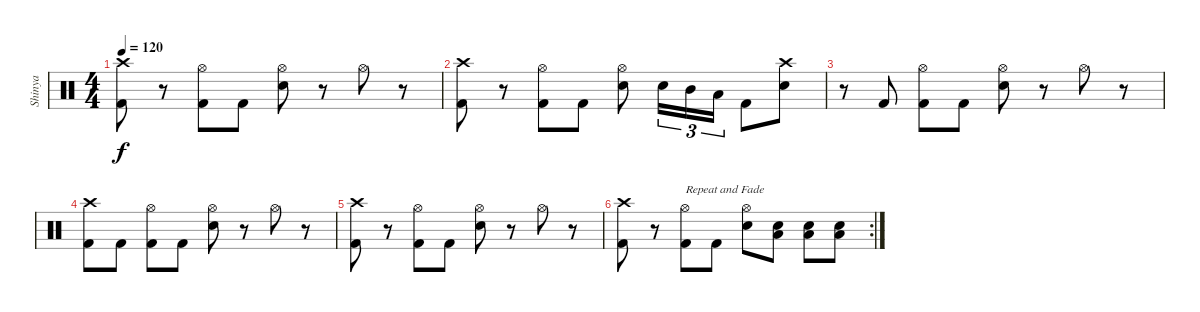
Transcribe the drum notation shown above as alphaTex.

\track ("Shinya" "Shinya") {instrument percussion}
\staff {score}
\articulation defaults
\ts (4 4)
\tempo 120
\clef neutral
\ks c
("Crash high (hit)" "Kick (hit) 2").8{dy f} r.8 ("Hi-Hat (open)" "Kick (hit) 2").8 "Kick (hit) 2".8 ("Hi-Hat (open)" "Electric Snare (hit)").8 r.8 "Hi-Hat (open)".8 r.8 |
("Crash high (hit)" "Kick (hit) 2").8 r.8 ("Hi-Hat (open)" "Kick (hit) 2").8 "Kick (hit) 2".8 ("Hi-Hat (open)" "Electric Snare (hit)").8 "Electric Snare (hit)".16{tu (3 2)} "Mid Tom (hit)".16{tu (3 2)} "Low Floor Tom (hit)".16{tu (3 2)} "Kick (hit) 2".8 ("Crash high (hit)" "Electric Snare (hit)").8 |
r.8 "Kick (hit) 2".8 ("Hi-Hat (open)" "Kick (hit) 2").8 "Kick (hit) 2".8 ("Hi-Hat (open)" "Electric Snare (hit)").8 r.8 "Hi-Hat (open)".8 r.8 |
("Crash high (hit)" "Kick (hit) 2").8 "Kick (hit) 2".8 ("Hi-Hat (open)" "Kick (hit) 2").8 "Kick (hit) 2".8 ("Hi-Hat (open)" "Electric Snare (hit)").8 r.8 "Hi-Hat (open)".8 r.8 |
("Crash high (hit)" "Kick (hit) 2").8 r.8 ("Hi-Hat (open)" "Kick (hit) 2").8 "Kick (hit) 2".8 ("Hi-Hat (open)" "Electric Snare (hit)").8 r.8 "Hi-Hat (open)".8 r.8 |
\rc 2
("Crash high (hit)" "Kick (hit) 2").8 r.8 ("Hi-Hat (open)" "Kick (hit) 2").8{txt "Repeat and Fade"} "Kick (hit) 2".8 ("Hi-Hat (open)" "Electric Snare (hit)").8 ("Electric Snare (hit)" "Low Floor Tom (hit)").8 ("Electric Snare (hit)" "Low Floor Tom (hit)").8 ("Electric Snare (hit)" "Low Floor Tom (hit)").8
